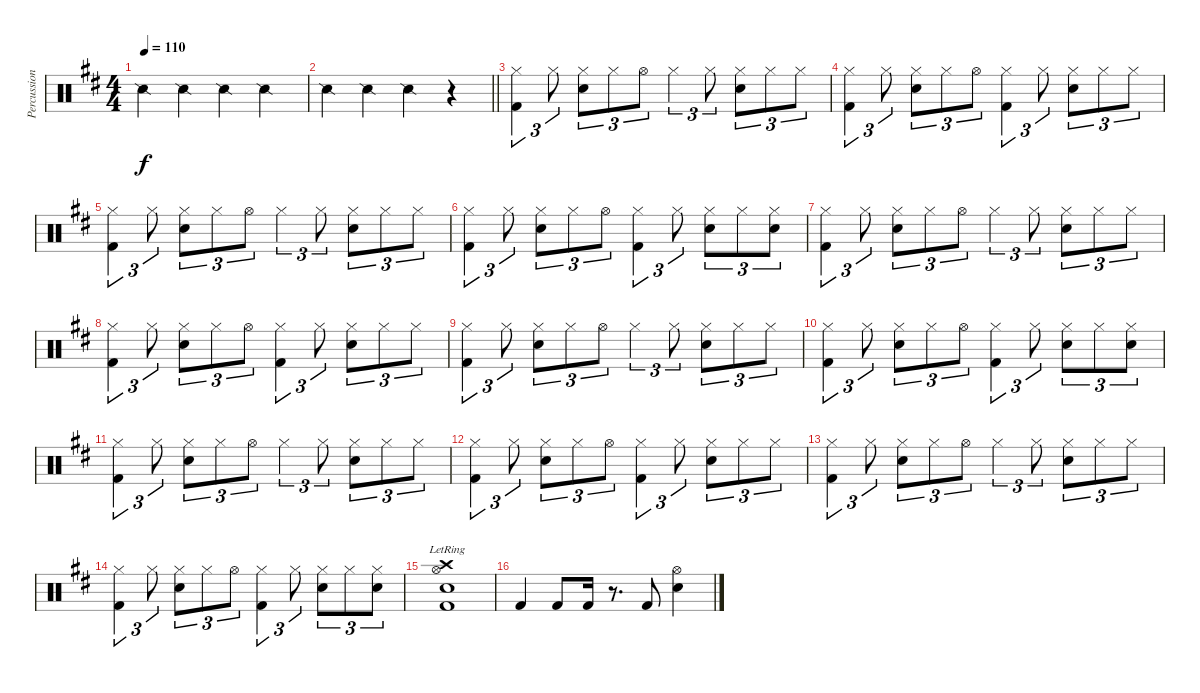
\track ("Percussion" "Percussion") {instrument percussion}
\staff {score}
\articulation defaults
\ts (4 4)
\tempo 110
\clef neutral
\ks d "Snare (side stick) 2".4{dy f} "Snare (side stick) 2".4 "Snare (side stick) 2".4 "Snare (side stick) 2".4
|
\barLineRight lightlight "Snare (side stick) 2".4 "Snare (side stick) 2".4 "Snare (side stick) 2".4
r.4 |
("Hi-Hat (closed)" "Kick (hit) 2").4{tu (3 2)} "Hi-Hat (closed)".8{tu (3 2)} ("Hi-Hat (closed)" "Snare (hit) 2").8{tu (3 2)} "Hi-Hat (closed)".8{tu (3 2)} "Hi-Hat (open)".8{tu (3 2)} "Hi-Hat (closed)".4{tu (3 2)} "Hi-Hat (closed)".8{tu (3 2)} ("Hi-Hat (closed)" "Snare (hit) 2").8{tu (3 2)} "Hi-Hat (closed)".8{tu (3 2)} "Hi-Hat (closed)".8{tu (3 2)} |
("Hi-Hat (closed)" "Kick (hit) 2").4{tu (3 2)} "Hi-Hat (closed)".8{tu (3 2)} ("Hi-Hat (closed)" "Snare (hit) 2").8{tu (3 2)} "Hi-Hat (closed)".8{tu (3 2)} "Hi-Hat (open)".8{tu (3 2)} ("Hi-Hat (closed)" "Kick (hit) 2").4{tu (3 2)} "Hi-Hat (closed)".8{tu (3 2)} ("Hi-Hat (closed)" "Snare (hit) 2").8{tu (3 2)} "Hi-Hat (closed)".8{tu (3 2)} "Hi-Hat (closed)".8{tu (3 2)} |
("Hi-Hat (closed)" "Kick (hit) 2").4{tu (3 2)} "Hi-Hat (closed)".8{tu (3 2)} ("Hi-Hat (closed)" "Snare (hit) 2").8{tu (3 2)} "Hi-Hat (closed)".8{tu (3 2)} "Hi-Hat (open)".8{tu (3 2)} "Hi-Hat (closed)".4{tu (3 2)} "Hi-Hat (closed)".8{tu (3 2)} ("Hi-Hat (closed)" "Snare (hit) 2").8{tu (3 2)} "Hi-Hat (closed)".8{tu (3 2)} "Hi-Hat (closed)".8{tu (3 2)} |
("Hi-Hat (closed)" "Kick (hit) 2").4{tu (3 2)} "Hi-Hat (closed)".8{tu (3 2)} ("Hi-Hat (closed)" "Snare (hit) 2").8{tu (3 2)} "Hi-Hat (closed)".8{tu (3 2)} "Hi-Hat (open)".8{tu (3 2)} ("Hi-Hat (closed)" "Kick (hit) 2").4{tu (3 2)} "Hi-Hat (closed)".8{tu (3 2)} ("Hi-Hat (closed)" "Snare (hit) 2").8{tu (3 2)} "Hi-Hat (closed)".8{tu (3 2)} ("Hi-Hat (closed)" "Snare (hit) 2").8{tu (3 2)} |
("Hi-Hat (closed)" "Kick (hit) 2").4{tu (3 2)} "Hi-Hat (closed)".8{tu (3 2)} ("Hi-Hat (closed)" "Snare (hit) 2").8{tu (3 2)} "Hi-Hat (closed)".8{tu (3 2)} "Hi-Hat (open)".8{tu (3 2)} "Hi-Hat (closed)".4{tu (3 2)} "Hi-Hat (closed)".8{tu (3 2)} ("Hi-Hat (closed)" "Snare (hit) 2").8{tu (3 2)} "Hi-Hat (closed)".8{tu (3 2)} "Hi-Hat (closed)".8{tu (3 2)} |
("Hi-Hat (closed)" "Kick (hit) 2").4{tu (3 2)} "Hi-Hat (closed)".8{tu (3 2)} ("Hi-Hat (closed)" "Snare (hit) 2").8{tu (3 2)} "Hi-Hat (closed)".8{tu (3 2)} "Hi-Hat (open)".8{tu (3 2)} ("Hi-Hat (closed)" "Kick (hit) 2").4{tu (3 2)} "Hi-Hat (closed)".8{tu (3 2)} ("Hi-Hat (closed)" "Snare (hit) 2").8{tu (3 2)} "Hi-Hat (closed)".8{tu (3 2)} "Hi-Hat (closed)".8{tu (3 2)} |
("Hi-Hat (closed)" "Kick (hit) 2").4{tu (3 2)} "Hi-Hat (closed)".8{tu (3 2)} ("Hi-Hat (closed)" "Snare (hit) 2").8{tu (3 2)} "Hi-Hat (closed)".8{tu (3 2)} "Hi-Hat (open)".8{tu (3 2)} "Hi-Hat (closed)".4{tu (3 2)} "Hi-Hat (closed)".8{tu (3 2)} ("Hi-Hat (closed)" "Snare (hit) 2").8{tu (3 2)} "Hi-Hat (closed)".8{tu (3 2)} "Hi-Hat (closed)".8{tu (3 2)} |
("Hi-Hat (closed)" "Kick (hit) 2").4{tu (3 2)} "Hi-Hat (closed)".8{tu (3 2)} ("Hi-Hat (closed)" "Snare (hit) 2").8{tu (3 2)} "Hi-Hat (closed)".8{tu (3 2)} "Hi-Hat (open)".8{tu (3 2)} ("Hi-Hat (closed)" "Kick (hit) 2").4{tu (3 2)} "Hi-Hat (closed)".8{tu (3 2)} ("Hi-Hat (closed)" "Snare (hit) 2").8{tu (3 2)} "Hi-Hat (closed)".8{tu (3 2)} ("Hi-Hat (closed)" "Snare (hit) 2").8{tu (3 2)} |
("Hi-Hat (closed)" "Kick (hit) 2").4{tu (3 2)} "Hi-Hat (closed)".8{tu (3 2)} ("Hi-Hat (closed)" "Snare (hit) 2").8{tu (3 2)} "Hi-Hat (closed)".8{tu (3 2)} "Hi-Hat (open)".8{tu (3 2)} "Hi-Hat (closed)".4{tu (3 2)} "Hi-Hat (closed)".8{tu (3 2)} ("Hi-Hat (closed)" "Snare (hit) 2").8{tu (3 2)} "Hi-Hat (closed)".8{tu (3 2)} "Hi-Hat (closed)".8{tu (3 2)} |
("Hi-Hat (closed)" "Kick (hit) 2").4{tu (3 2)} "Hi-Hat (closed)".8{tu (3 2)} ("Hi-Hat (closed)" "Snare (hit) 2").8{tu (3 2)} "Hi-Hat (closed)".8{tu (3 2)} "Hi-Hat (open)".8{tu (3 2)} ("Hi-Hat (closed)" "Kick (hit) 2").4{tu (3 2)} "Hi-Hat (closed)".8{tu (3 2)} ("Hi-Hat (closed)" "Snare (hit) 2").8{tu (3 2)} "Hi-Hat (closed)".8{tu (3 2)} "Hi-Hat (closed)".8{tu (3 2)} |
("Hi-Hat (closed)" "Kick (hit) 2").4{tu (3 2)} "Hi-Hat (closed)".8{tu (3 2)} ("Hi-Hat (closed)" "Snare (hit) 2").8{tu (3 2)} "Hi-Hat (closed)".8{tu (3 2)} "Hi-Hat (open)".8{tu (3 2)} "Hi-Hat (closed)".4{tu (3 2)} "Hi-Hat (closed)".8{tu (3 2)} ("Hi-Hat (closed)" "Snare (hit) 2").8{tu (3 2)} "Hi-Hat (closed)".8{tu (3 2)} "Hi-Hat (closed)".8{tu (3 2)} |
("Hi-Hat (closed)" "Kick (hit) 2").4{tu (3 2)} "Hi-Hat (closed)".8{tu (3 2)} ("Hi-Hat (closed)" "Snare (hit) 2").8{tu (3 2)} "Hi-Hat (closed)".8{tu (3 2)} "Hi-Hat (open)".8{tu (3 2)} ("Hi-Hat (closed)" "Kick (hit) 2").4{tu (3 2)} "Hi-Hat (closed)".8{tu (3 2)} ("Hi-Hat (closed)" "Snare (hit) 2").8{tu (3 2)} "Hi-Hat (closed)".8{tu (3 2)} ("Hi-Hat (closed)" "Snare (hit) 2").8{tu (3 2)} |
("Crash high (hit)"{lr} "Hi-Hat (open)"{lr} "Kick (hit) 2" "Snare (hit) 2").1 |
"Kick (hit) 2".4 "Kick (hit) 2".8 "Kick (hit) 2".16 r.8{d} "Kick (hit) 2".8 ("Hi-Hat (open)" "Snare (hit) 2").4
